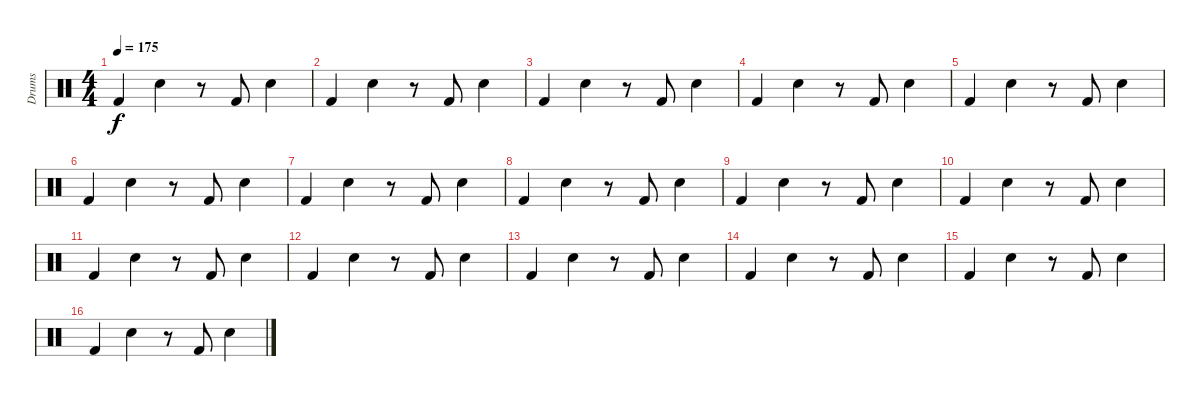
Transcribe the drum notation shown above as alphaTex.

\track ("Drums" "Drums") {instrument percussion}
\staff {score}
\articulation defaults
\ts (4 4)
\tempo 175
\clef neutral
\ks c "Kick (hit) 2".4{dy f} "Electric Snare (hit)".4
r.8 "Kick (hit) 2".8 "Electric Snare (hit)".4 |
"Kick (hit) 2".4 "Electric Snare (hit)".4 r.8 "Kick (hit) 2".8 "Electric Snare (hit)".4 |
"Kick (hit) 2".4 "Electric Snare (hit)".4 r.8 "Kick (hit) 2".8 "Electric Snare (hit)".4 |
"Kick (hit) 2".4 "Electric Snare (hit)".4 r.8 "Kick (hit) 2".8 "Electric Snare (hit)".4 |
"Kick (hit) 2".4 "Electric Snare (hit)".4 r.8 "Kick (hit) 2".8 "Electric Snare (hit)".4 |
"Kick (hit) 2".4 "Electric Snare (hit)".4 r.8 "Kick (hit) 2".8 "Electric Snare (hit)".4 |
"Kick (hit) 2".4 "Electric Snare (hit)".4 r.8 "Kick (hit) 2".8 "Electric Snare (hit)".4 |
"Kick (hit) 2".4 "Electric Snare (hit)".4 r.8 "Kick (hit) 2".8 "Electric Snare (hit)".4 |
"Kick (hit) 2".4 "Electric Snare (hit)".4 r.8 "Kick (hit) 2".8 "Electric Snare (hit)".4 |
"Kick (hit) 2".4 "Electric Snare (hit)".4 r.8 "Kick (hit) 2".8 "Electric Snare (hit)".4 |
"Kick (hit) 2".4 "Electric Snare (hit)".4 r.8 "Kick (hit) 2".8 "Electric Snare (hit)".4 |
"Kick (hit) 2".4 "Electric Snare (hit)".4 r.8 "Kick (hit) 2".8 "Electric Snare (hit)".4 |
"Kick (hit) 2".4 "Electric Snare (hit)".4 r.8 "Kick (hit) 2".8 "Electric Snare (hit)".4 |
"Kick (hit) 2".4 "Electric Snare (hit)".4 r.8 "Kick (hit) 2".8 "Electric Snare (hit)".4 |
"Kick (hit) 2".4 "Electric Snare (hit)".4 r.8 "Kick (hit) 2".8 "Electric Snare (hit)".4 |
"Kick (hit) 2".4 "Electric Snare (hit)".4 r.8 "Kick (hit) 2".8 "Electric Snare (hit)".4
